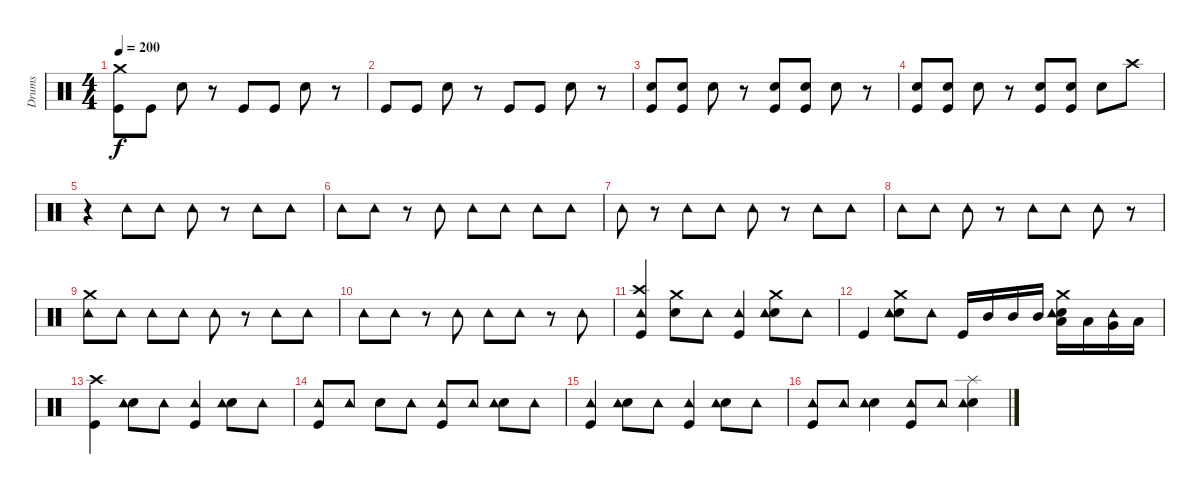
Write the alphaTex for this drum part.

\track ("Drums" "Drums") {instrument percussion}
\staff {score}
\articulation defaults
\ts (4 4)
\tempo 200
\clef neutral
\ks c
("Kick (hit)" "Crash medium (hit)").8{dy f} "Kick (hit)".8 "Electric Snare (hit)".8 r.8 "Kick (hit)".8 "Kick (hit)".8 "Electric Snare (hit)".8 r.8 |
"Kick (hit)".8 "Kick (hit)".8 "Electric Snare (hit)".8 r.8 "Kick (hit)".8 "Kick (hit)".8 "Electric Snare (hit)".8 r.8 |
("Kick (hit)" "Snare (hit) 2").8 ("Kick (hit)" "Snare (hit) 2").8 "Electric Snare (hit)".8 r.8 ("Kick (hit)" "Snare (hit) 2").8 ("Kick (hit)" "Snare (hit) 2").8 "Electric Snare (hit)".8 r.8 |
("Kick (hit)" "Snare (hit) 2").8 ("Kick (hit)" "Snare (hit) 2").8 "Electric Snare (hit)".8 r.8 ("Kick (hit)" "Snare (hit) 2").8 ("Kick (hit)" "Snare (hit) 2").8 "Electric Snare (hit)".8 "Crash high (hit)".8 |
r.4 "Tambourine (hit)".8 "Tambourine (hit)".8 "Tambourine (hit)".8 r.8 "Tambourine (hit)".8 "Tambourine (hit)".8 |
"Tambourine (hit)".8 "Tambourine (hit)".8 r.8 "Tambourine (hit)".8 "Tambourine (hit)".8 "Tambourine (hit)".8 "Tambourine (hit)".8 "Tambourine (hit)".8 |
"Tambourine (hit)".8 r.8 "Tambourine (hit)".8 "Tambourine (hit)".8 "Tambourine (hit)".8 r.8 "Tambourine (hit)".8 "Tambourine (hit)".8 |
"Tambourine (hit)".8 "Tambourine (hit)".8 "Tambourine (hit)".8 r.8 "Tambourine (hit)".8 "Tambourine (hit)".8 "Tambourine (hit)".8 r.8 |
("Tambourine (hit)" "Crash medium (hit)").8 "Tambourine (hit)".8 "Tambourine (hit)".8 "Tambourine (hit)".8 "Tambourine (hit)".8 r.8 "Tambourine (hit)".8 "Tambourine (hit)".8 |
"Tambourine (hit)".8 "Tambourine (hit)".8 r.8 "Tambourine (hit)".8 "Tambourine (hit)".8 "Tambourine (hit)".8 r.8 "Tambourine (hit)".8 |
("Kick (hit)" "Crash high (hit)" "Tambourine (hit)").4 ("Snare (hit) 2" "Crash medium (hit)").8 "Tambourine (hit)".8 ("Kick (hit)" "Tambourine (hit)").4 ("Snare (hit) 2" "Tambourine (hit)" "Crash medium (hit)").8 "Tambourine (hit)".8 |
"Kick (hit)".4 ("Snare (hit) 2" "Tambourine (hit)" "Crash medium (hit)").8 "Tambourine (hit)".8 "Kick (hit)".16 "Mid Tom (hit)".16 "Mid Tom (hit)".16 "Mid Tom (hit)".16 ("Snare (hit) 2" "Low Tom (hit)" "Tambourine (hit)" "Crash medium (hit)").16 "Low Tom (hit)".16 ("Very Low Tom (hit)" "Tambourine (hit)").16 "Low Floor Tom (hit)".16 |
("Kick (hit)" "Crash high (hit)").4 ("Snare (hit) 2" "Tambourine (hit)").8 "Tambourine (hit)".8 ("Kick (hit)" "Tambourine (hit)").4 ("Snare (hit) 2" "Tambourine (hit)").8 "Tambourine (hit)".8 |
("Kick (hit)" "Tambourine (hit)").8 "Tambourine (hit)".8 "Snare (hit) 2".8 "Tambourine (hit)".8 ("Kick (hit)" "Tambourine (hit)").8 "Tambourine (hit)".8 ("Snare (hit) 2" "Tambourine (hit)").8 "Tambourine (hit)".8 |
("Kick (hit)" "Tambourine (hit)").4 ("Snare (hit) 2" "Tambourine (hit)").8 "Tambourine (hit)".8 ("Kick (hit)" "Tambourine (hit)").4 ("Snare (hit) 2" "Tambourine (hit)").8 "Tambourine (hit)".8 |
("Kick (hit)" "Tambourine (hit)").8 "Tambourine (hit)".8 ("Snare (hit) 2" "Tambourine (hit)").4 ("Kick (hit)" "Tambourine (hit)").8 "Tambourine (hit)".8 ("Snare (hit) 2" "Tambourine (hit)" "Splash (hit)").4
